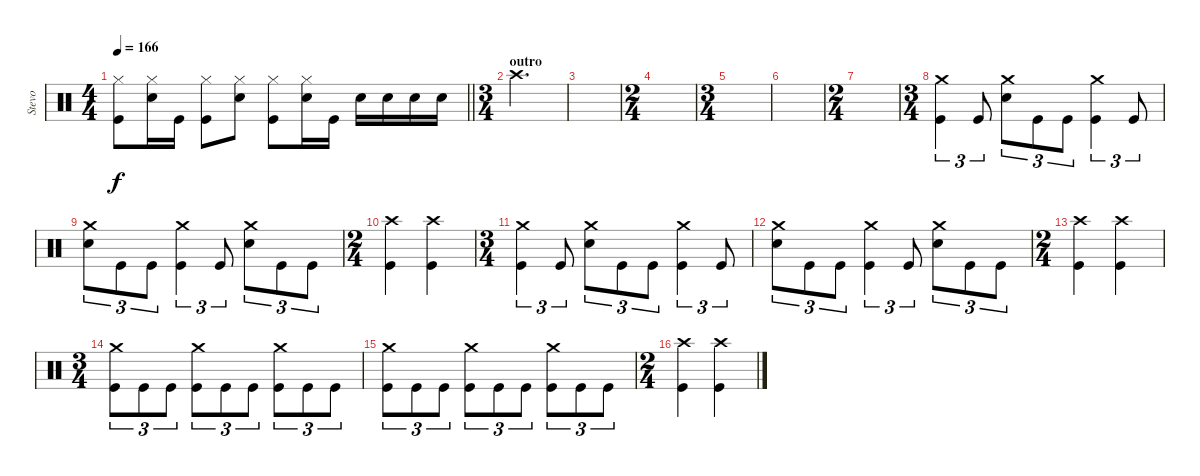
\track ("Stevo" "Stevo") {instrument percussion}
\staff {score}
\articulation defaults
\ts (4 4)
\tempo 166
\clef neutral
\barLineRight lightlight
\ks c
("Hi-Hat (closed)" "Kick (hit)").8{dy f} ("Hi-Hat (closed)" "Electric Snare (hit)").16 "Kick (hit)".16 ("Hi-Hat (closed)" "Kick (hit)").8 ("Hi-Hat (closed)" "Electric Snare (hit)").8 ("Hi-Hat (closed)" "Kick (hit)").8 ("Hi-Hat (closed)" "Electric Snare (hit)").16 "Kick (hit)".16 "Electric Snare (hit)".16 "Electric Snare (hit)".16 "Electric Snare (hit)".16 "Electric Snare (hit)".16 |
\ts (3 4)
\section ("" "outro")
"Crash high (hit)".2{d} |
|
\ts (2 4)
|
\ts (3 4)
|
|
\ts (2 4)
|
\ts (3 4)
("Crash medium (hit)" "Kick (hit)").4{tu (3 2)} "Kick (hit)".8{tu (3 2)} ("Crash medium (hit)" "Electric Snare (hit)").8{tu (3 2)} "Kick (hit)".8{tu (3 2)} "Kick (hit)".8{tu (3 2)} ("Crash medium (hit)" "Kick (hit)").4{tu (3 2)} "Kick (hit)".8{tu (3 2)} |
("Crash medium (hit)" "Electric Snare (hit)").8{tu (3 2)} "Kick (hit)".8{tu (3 2)} "Kick (hit)".8{tu (3 2)} ("Crash medium (hit)" "Kick (hit)").4{tu (3 2)} "Kick (hit)".8{tu (3 2)} ("Crash medium (hit)" "Electric Snare (hit)").8{tu (3 2)} "Kick (hit)".8{tu (3 2)} "Kick (hit)".8{tu (3 2)} |
\ts (2 4)
("Crash high (hit)" "Kick (hit)").4 ("Crash high (hit)" "Kick (hit)").4 |
\ts (3 4)
("Crash medium (hit)" "Kick (hit)").4{tu (3 2)} "Kick (hit)".8{tu (3 2)} ("Crash medium (hit)" "Electric Snare (hit)").8{tu (3 2)} "Kick (hit)".8{tu (3 2)} "Kick (hit)".8{tu (3 2)} ("Crash medium (hit)" "Kick (hit)").4{tu (3 2)} "Kick (hit)".8{tu (3 2)} |
("Crash medium (hit)" "Electric Snare (hit)").8{tu (3 2)} "Kick (hit)".8{tu (3 2)} "Kick (hit)".8{tu (3 2)} ("Crash medium (hit)" "Kick (hit)").4{tu (3 2)} "Kick (hit)".8{tu (3 2)} ("Crash medium (hit)" "Electric Snare (hit)").8{tu (3 2)} "Kick (hit)".8{tu (3 2)} "Kick (hit)".8{tu (3 2)} |
\ts (2 4)
("Crash high (hit)" "Kick (hit)").4 ("Crash high (hit)" "Kick (hit)").4 |
\ts (3 4)
("Crash medium (hit)" "Kick (hit)").8{tu (3 2)} "Kick (hit)".8{tu (3 2)} "Kick (hit)".8{tu (3 2)} ("Crash medium (hit)" "Kick (hit)").8{tu (3 2)} "Kick (hit)".8{tu (3 2)} "Kick (hit)".8{tu (3 2)} ("Crash medium (hit)" "Kick (hit)").8{tu (3 2)} "Kick (hit)".8{tu (3 2)} "Kick (hit)".8{tu (3 2)} |
("Crash medium (hit)" "Kick (hit)").8{tu (3 2)} "Kick (hit)".8{tu (3 2)} "Kick (hit)".8{tu (3 2)} ("Crash medium (hit)" "Kick (hit)").8{tu (3 2)} "Kick (hit)".8{tu (3 2)} "Kick (hit)".8{tu (3 2)} ("Crash medium (hit)" "Kick (hit)").8{tu (3 2)} "Kick (hit)".8{tu (3 2)} "Kick (hit)".8{tu (3 2)} |
\ts (2 4)
("Crash high (hit)" "Kick (hit)").4 ("Crash high (hit)" "Kick (hit)").4
